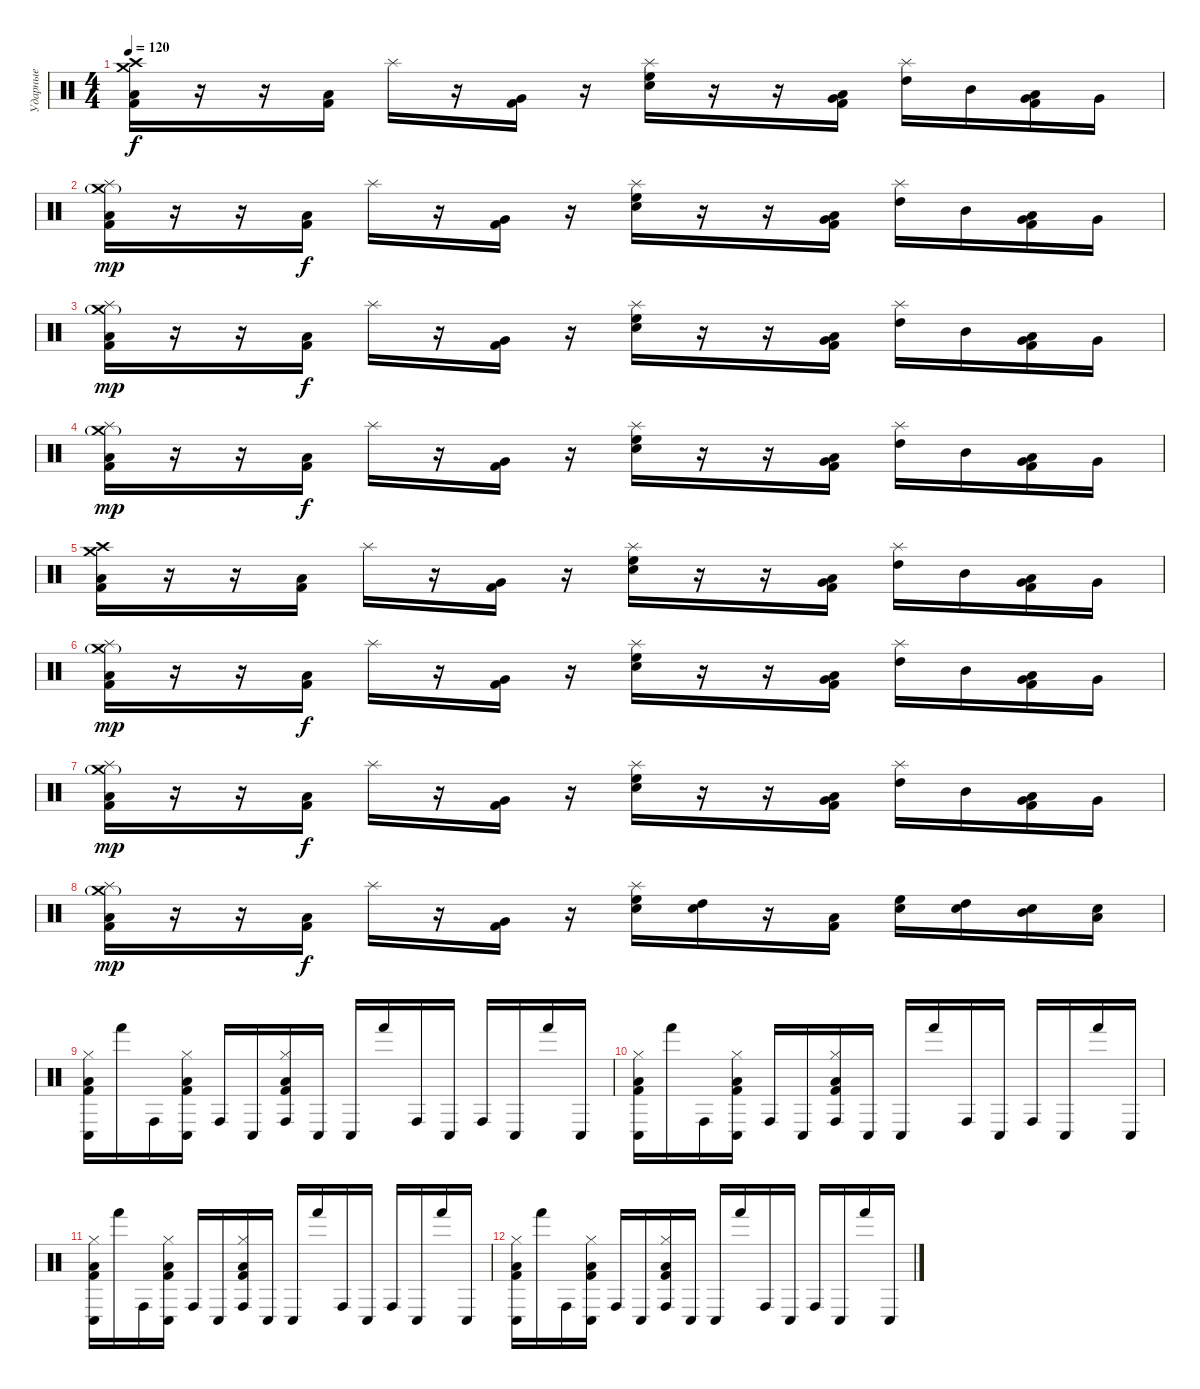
\track ("Ударные" "Ударные") {instrument percussion}
\staff
\articulation defaults
\ts (4 4)
\tempo 120
\clef neutral
\ks c
("Crash medium (hit)" "Crash high (hit)" "Low Tom (hit)" "Kick (hit) 2").16{dy f} r.16 r.16 ("Low Tom (hit)" "Kick (hit) 2").16 "Splash (hit)".16 r.16 ("Very Low Tom (hit)" "Kick (hit) 2").16 r.16 ("Splash (hit)" "High Floor Tom (hit)" "Electric Snare (hit)").16 r.16 r.16 ("Very Low Tom (hit)" "Low Tom (hit)" "Kick (hit) 2").16 ("Splash (hit)" "High Tom (hit)").16 "Mid Tom (hit)".16 ("Low Tom (hit)" "Very Low Tom (hit)" "Kick (hit) 2").16 "Very Low Tom (hit)".16 |
("Crash medium (hit)"{g} "Splash (hit)" "Low Tom (hit)" "Kick (hit) 2").16{dy mp} r.16 r.16 ("Low Tom (hit)" "Kick (hit) 2").16{dy f} "Splash (hit)".16 r.16 ("Very Low Tom (hit)" "Kick (hit) 2").16 r.16 ("Splash (hit)" "High Floor Tom (hit)" "Electric Snare (hit)").16 r.16 r.16 ("Very Low Tom (hit)" "Low Tom (hit)" "Kick (hit) 2").16 ("Splash (hit)" "High Tom (hit)").16 "Mid Tom (hit)".16 ("Low Tom (hit)" "Very Low Tom (hit)" "Kick (hit) 2").16 "Very Low Tom (hit)".16 |
("Crash medium (hit)"{g} "Splash (hit)" "Low Tom (hit)" "Kick (hit) 2").16{dy mp} r.16 r.16 ("Low Tom (hit)" "Kick (hit) 2").16{dy f} "Splash (hit)".16 r.16 ("Very Low Tom (hit)" "Kick (hit) 2").16 r.16 ("Splash (hit)" "High Floor Tom (hit)" "Electric Snare (hit)").16 r.16 r.16 ("Very Low Tom (hit)" "Low Tom (hit)" "Kick (hit) 2").16 ("Splash (hit)" "High Tom (hit)").16 "Mid Tom (hit)".16 ("Low Tom (hit)" "Very Low Tom (hit)" "Kick (hit) 2").16 "Very Low Tom (hit)".16 |
("Crash medium (hit)"{g} "Splash (hit)" "Low Tom (hit)" "Kick (hit) 2").16{dy mp} r.16 r.16 ("Low Tom (hit)" "Kick (hit) 2").16{dy f} "Splash (hit)".16 r.16 ("Very Low Tom (hit)" "Kick (hit) 2").16 r.16 ("Splash (hit)" "High Floor Tom (hit)" "Electric Snare (hit)").16 r.16 r.16 ("Very Low Tom (hit)" "Low Tom (hit)" "Kick (hit) 2").16 ("Splash (hit)" "High Tom (hit)").16 "Mid Tom (hit)".16 ("Low Tom (hit)" "Very Low Tom (hit)" "Kick (hit) 2").16 "Very Low Tom (hit)".16 |
("Crash medium (hit)" "Crash high (hit)" "Low Tom (hit)" "Kick (hit) 2").16 r.16 r.16 ("Low Tom (hit)" "Kick (hit) 2").16 "Splash (hit)".16 r.16 ("Very Low Tom (hit)" "Kick (hit) 2").16 r.16 ("Splash (hit)" "High Floor Tom (hit)" "Electric Snare (hit)").16 r.16 r.16 ("Very Low Tom (hit)" "Low Tom (hit)" "Kick (hit) 2").16 ("Splash (hit)" "High Tom (hit)").16 "Mid Tom (hit)".16 ("Low Tom (hit)" "Very Low Tom (hit)" "Kick (hit) 2").16 "Very Low Tom (hit)".16 |
("Crash medium (hit)"{g} "Splash (hit)" "Low Tom (hit)" "Kick (hit) 2").16{dy mp} r.16 r.16 ("Low Tom (hit)" "Kick (hit) 2").16{dy f} "Splash (hit)".16 r.16 ("Very Low Tom (hit)" "Kick (hit) 2").16 r.16 ("Splash (hit)" "High Floor Tom (hit)" "Electric Snare (hit)").16 r.16 r.16 ("Very Low Tom (hit)" "Low Tom (hit)" "Kick (hit) 2").16 ("Splash (hit)" "High Tom (hit)").16 "Mid Tom (hit)".16 ("Low Tom (hit)" "Very Low Tom (hit)" "Kick (hit) 2").16 "Very Low Tom (hit)".16 |
("Crash medium (hit)"{g} "Splash (hit)" "Low Tom (hit)" "Kick (hit) 2").16{dy mp} r.16 r.16 ("Low Tom (hit)" "Kick (hit) 2").16{dy f} "Splash (hit)".16 r.16 ("Very Low Tom (hit)" "Kick (hit) 2").16 r.16 ("Splash (hit)" "High Floor Tom (hit)" "Electric Snare (hit)").16 r.16 r.16 ("Very Low Tom (hit)" "Low Tom (hit)" "Kick (hit) 2").16 ("Splash (hit)" "High Tom (hit)").16 "Mid Tom (hit)".16 ("Low Tom (hit)" "Very Low Tom (hit)" "Kick (hit) 2").16 "Very Low Tom (hit)".16 |
("Crash medium (hit)"{g} "Splash (hit)" "Low Tom (hit)" "Kick (hit) 2").16{dy mp} r.16 r.16 ("Low Tom (hit)" "Kick (hit) 2").16{dy f} "Splash (hit)".16 r.16 ("Very Low Tom (hit)" "Kick (hit) 2").16 r.16 ("Splash (hit)" "High Floor Tom (hit)" "Electric Snare (hit)").16 ("High Tom (hit)" "Electric Snare (hit)").16 r.16 ("Low Floor Tom (hit)" "Kick (hit) 2").16 ("High Floor Tom (hit)" "Electric Snare (hit)").16 ("High Tom (hit)" "Electric Snare (hit)").16 ("Mid Tom (hit)" "Electric Snare (hit)").16 ("Low Tom (hit)" "Electric Snare (hit)").16 |
("Conga low (hit)" "Hi-Hat (closed)" "Low Floor Tom (hit)" "Kick (hit) 2").16 "Hand (hit)".16 "Conga high (hit)".16 ("Conga low (hit)" "Hi-Hat (closed)" "Low Floor Tom (hit)" "Kick (hit) 2").16 "Conga high (hit)".16 "Conga low (hit)".16 ("Conga high (hit)" "Hi-Hat (closed)" "Low Floor Tom (hit)" "Kick (hit) 2").16 "Conga low (hit)".16 "Conga low (hit)".16 "Hand (hit)".16 "Conga high (hit)".16 "Conga low (hit)".16 "Conga high (hit)".16 "Conga low (hit)".16 "Hand (hit)".16 "Conga low (hit)".16 |
("Conga low (hit)" "Hi-Hat (closed)" "Low Floor Tom (hit)" "Kick (hit) 2").16 "Hand (hit)".16 "Conga high (hit)".16 ("Conga low (hit)" "Hi-Hat (closed)" "Low Floor Tom (hit)" "Kick (hit) 2").16 "Conga high (hit)".16 "Conga low (hit)".16 ("Conga high (hit)" "Hi-Hat (closed)" "Low Floor Tom (hit)" "Kick (hit) 2").16 "Conga low (hit)".16 "Conga low (hit)".16 "Hand (hit)".16 "Conga high (hit)".16 "Conga low (hit)".16 "Conga high (hit)".16 "Conga low (hit)".16 "Hand (hit)".16 "Conga low (hit)".16 |
("Conga low (hit)" "Hi-Hat (closed)" "Low Floor Tom (hit)" "Kick (hit) 2").16 "Hand (hit)".16 "Conga high (hit)".16 ("Conga low (hit)" "Hi-Hat (closed)" "Low Floor Tom (hit)" "Kick (hit) 2").16 "Conga high (hit)".16 "Conga low (hit)".16 ("Conga high (hit)" "Hi-Hat (closed)" "Low Floor Tom (hit)" "Kick (hit) 2").16 "Conga low (hit)".16 "Conga low (hit)".16 "Hand (hit)".16 "Conga high (hit)".16 "Conga low (hit)".16 "Conga high (hit)".16 "Conga low (hit)".16 "Hand (hit)".16 "Conga low (hit)".16 |
("Conga low (hit)" "Hi-Hat (closed)" "Low Floor Tom (hit)" "Kick (hit) 2").16 "Hand (hit)".16 "Conga high (hit)".16 ("Conga low (hit)" "Hi-Hat (closed)" "Low Floor Tom (hit)" "Kick (hit) 2").16 "Conga high (hit)".16 "Conga low (hit)".16 ("Conga high (hit)" "Hi-Hat (closed)" "Low Floor Tom (hit)" "Kick (hit) 2").16 "Conga low (hit)".16 "Conga low (hit)".16 "Hand (hit)".16 "Conga high (hit)".16 "Conga low (hit)".16 "Conga high (hit)".16 "Conga low (hit)".16 "Hand (hit)".16 "Conga low (hit)".16
